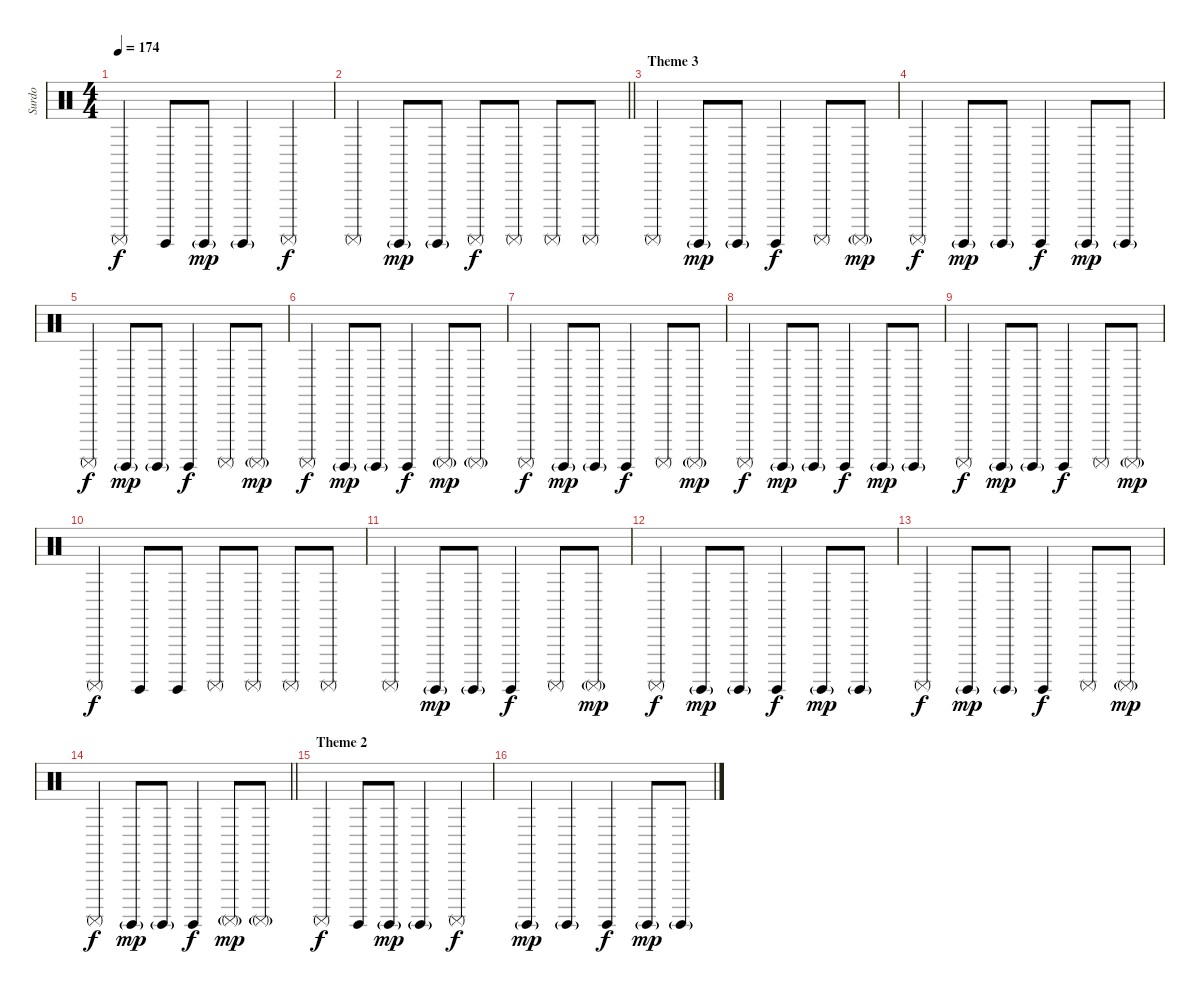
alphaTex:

\track ("Surdo" "Surdo") {instrument percussion}
\staff {score}
\articulation defaults
\ts (4 4)
\tempo 174
\clef neutral
\ks c "Surdo (mute)".4{dy f} "Surdo (hit)".8 "Surdo (hit)"{g}.8{dy mp} "Surdo (hit)"{g}.4 "Surdo (mute)".4{dy f}
|
\barLineRight lightlight "Surdo (mute)".4 "Surdo (hit)"{g}.8{dy mp} "Surdo (hit)"{g}.8 "Surdo (mute)".8{dy f} "Surdo (mute)".8 "Surdo (mute)".8 "Surdo (mute)".8
|
\section ("" "Theme 3")
"Surdo (mute)".4 "Surdo (hit)"{g}.8{dy mp} "Surdo (hit)"{g}.8 "Surdo (hit)".4{dy f} "Surdo (mute)".8 "Surdo (mute)"{g}.8{dy mp} |
"Surdo (mute)".4{dy f} "Surdo (hit)"{g}.8{dy mp} "Surdo (hit)"{g}.8 "Surdo (hit)".4{dy f} "Surdo (hit)"{g}.8{dy mp} "Surdo (hit)"{g}.8 |
"Surdo (mute)".4{dy f} "Surdo (hit)"{g}.8{dy mp} "Surdo (hit)"{g}.8 "Surdo (hit)".4{dy f} "Surdo (mute)".8 "Surdo (mute)"{g}.8{dy mp} |
"Surdo (mute)".4{dy f} "Surdo (hit)"{g}.8{dy mp} "Surdo (hit)"{g}.8 "Surdo (hit)".4{dy f} "Surdo (mute)"{g}.8{dy mp} "Surdo (mute)"{g}.8 |
"Surdo (mute)".4{dy f} "Surdo (hit)"{g}.8{dy mp} "Surdo (hit)"{g}.8 "Surdo (hit)".4{dy f} "Surdo (mute)".8 "Surdo (mute)"{g}.8{dy mp} |
"Surdo (mute)".4{dy f} "Surdo (hit)"{g}.8{dy mp} "Surdo (hit)"{g}.8 "Surdo (hit)".4{dy f} "Surdo (hit)"{g}.8{dy mp} "Surdo (hit)"{g}.8 |
"Surdo (mute)".4{dy f} "Surdo (hit)"{g}.8{dy mp} "Surdo (hit)"{g}.8 "Surdo (hit)".4{dy f} "Surdo (mute)".8 "Surdo (mute)"{g}.8{dy mp} |
"Surdo (mute)".4{dy f} "Surdo (hit)".8 "Surdo (hit)".8 "Surdo (mute)".8 "Surdo (mute)".8 "Surdo (mute)".8 "Surdo (mute)".8 |
"Surdo (mute)".4 "Surdo (hit)"{g}.8{dy mp} "Surdo (hit)"{g}.8 "Surdo (hit)".4{dy f} "Surdo (mute)".8 "Surdo (mute)"{g}.8{dy mp} |
"Surdo (mute)".4{dy f} "Surdo (hit)"{g}.8{dy mp} "Surdo (hit)"{g}.8 "Surdo (hit)".4{dy f} "Surdo (hit)"{g}.8{dy mp} "Surdo (hit)"{g}.8 |
"Surdo (mute)".4{dy f} "Surdo (hit)"{g}.8{dy mp} "Surdo (hit)"{g}.8 "Surdo (hit)".4{dy f} "Surdo (mute)".8 "Surdo (mute)"{g}.8{dy mp} |
\barLineRight lightlight "Surdo (mute)".4{dy f} "Surdo (hit)"{g}.8{dy mp} "Surdo (hit)"{g}.8 "Surdo (hit)".4{dy f} "Surdo (mute)"{g}.8{dy mp} "Surdo (mute)"{g}.8
|
\section ("" "Theme 2")
"Surdo (mute)".4{dy f} "Surdo (hit)".8 "Surdo (hit)"{g}.8{dy mp} "Surdo (hit)"{g}.4 "Surdo (mute)".4{dy f} |
"Surdo (hit)"{g}.4{dy mp} "Surdo (hit)"{g}.4 "Surdo (hit)".4{dy f} "Surdo (hit)"{g}.8{dy mp} "Surdo (hit)"{g}.8
